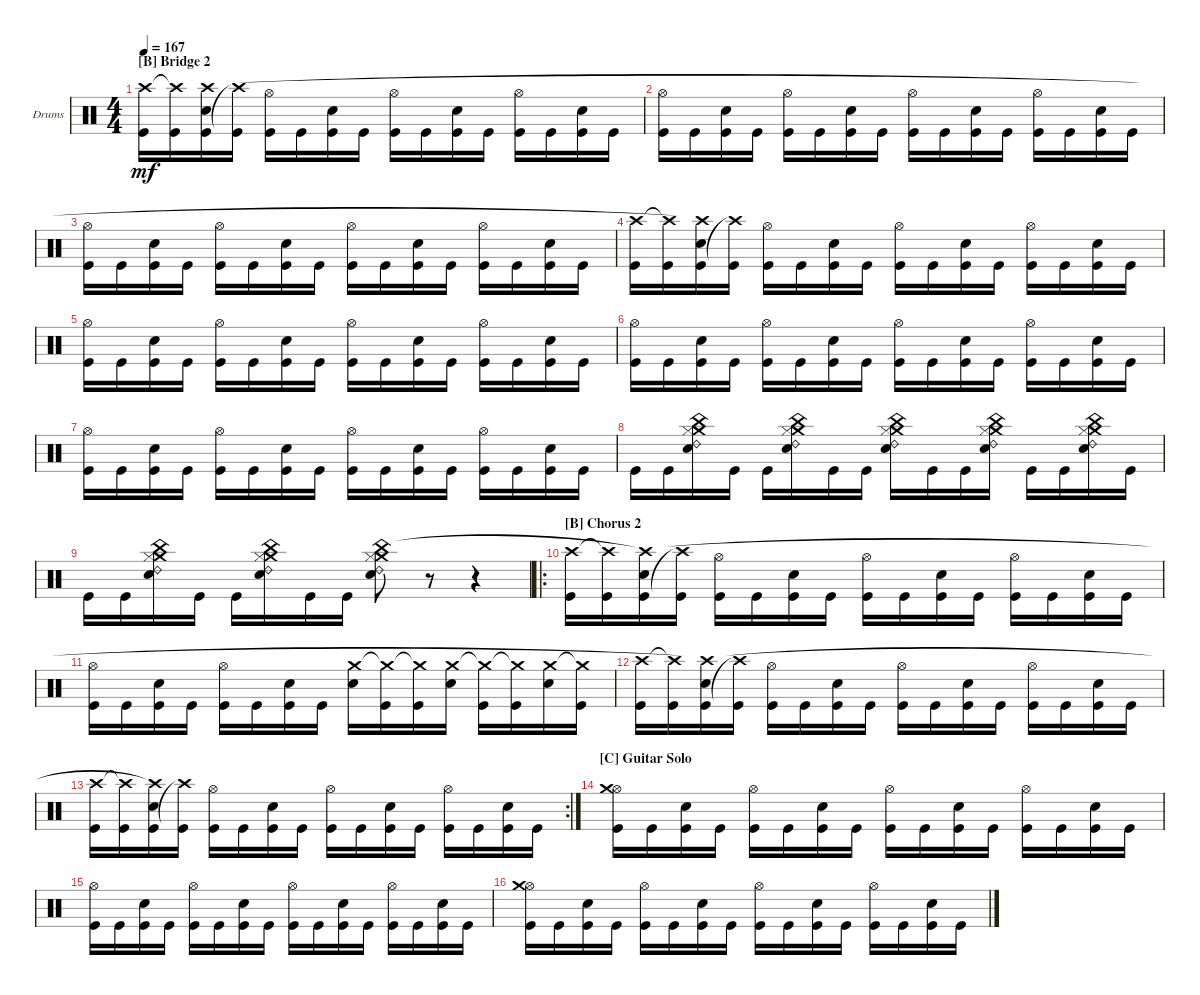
\defaultSystemsLayout 4
\bracketExtendMode groupsimilarinstruments
\firstSystemTrackNameOrientation horizontal
\otherSystemsTrackNameOrientation horizontal
\track ("Drumkit" "Drums") {instrument percussion}
\staff {score}
\articulation defaults
\ts (4 4)
\section ("B" "Bridge 2")
\tempo 167
\clef neutral
\ks c
("Kick (hit)" "Crash high (hit)").16{dy mf} ("Kick (hit)" "Crash high (hit)"{t}).16 ("Snare (hit) 2" "Kick (hit)" "Crash high (hit)"{t}).16 ("Kick (hit)" "Crash high (hit)"{t}).16 ("Hi-Hat (open)" "Kick (hit)").16 "Kick (hit)".16 ("Kick (hit)" "Snare (hit) 2").16 "Kick (hit)".16 ("Kick (hit)" "Hi-Hat (open)").16 "Kick (hit)".16 ("Kick (hit)" "Snare (hit) 2").16 "Kick (hit)".16 ("Kick (hit)" "Hi-Hat (open)").16 "Kick (hit)".16 ("Kick (hit)" "Snare (hit) 2").16 "Kick (hit)".16 |
("Kick (hit)" "Hi-Hat (open)").16 "Kick (hit)".16 ("Snare (hit) 2" "Kick (hit)").16 "Kick (hit)".16 ("Hi-Hat (open)" "Kick (hit)").16 "Kick (hit)".16 ("Kick (hit)" "Snare (hit) 2").16 "Kick (hit)".16 ("Kick (hit)" "Hi-Hat (open)").16 "Kick (hit)".16 ("Kick (hit)" "Snare (hit) 2").16 "Kick (hit)".16 ("Kick (hit)" "Hi-Hat (open)").16 "Kick (hit)".16 ("Kick (hit)" "Snare (hit) 2").16 "Kick (hit)".16 |
("Kick (hit)" "Hi-Hat (open)").16 "Kick (hit)".16 ("Snare (hit) 2" "Kick (hit)").16 "Kick (hit)".16 ("Hi-Hat (open)" "Kick (hit)").16 "Kick (hit)".16 ("Kick (hit)" "Snare (hit) 2").16 "Kick (hit)".16 ("Kick (hit)" "Hi-Hat (open)").16 "Kick (hit)".16 ("Kick (hit)" "Snare (hit) 2").16 "Kick (hit)".16 ("Kick (hit)" "Hi-Hat (open)").16 "Kick (hit)".16 ("Kick (hit)" "Snare (hit) 2").16 "Kick (hit)".16 |
("Kick (hit)" "Crash high (hit)").16 ("Kick (hit)" "Crash high (hit)"{t}).16 ("Snare (hit) 2" "Kick (hit)" "Crash high (hit)"{t}).16 ("Kick (hit)" "Crash high (hit)"{t}).16 ("Hi-Hat (open)" "Kick (hit)").16 "Kick (hit)".16 ("Kick (hit)" "Snare (hit) 2").16 "Kick (hit)".16 ("Kick (hit)" "Hi-Hat (open)").16 "Kick (hit)".16 ("Kick (hit)" "Snare (hit) 2").16 "Kick (hit)".16 ("Kick (hit)" "Hi-Hat (open)").16 "Kick (hit)".16 ("Kick (hit)" "Snare (hit) 2").16 "Kick (hit)".16 |
("Kick (hit)" "Hi-Hat (open)").16 "Kick (hit)".16 ("Snare (hit) 2" "Kick (hit)").16 "Kick (hit)".16 ("Hi-Hat (open)" "Kick (hit)").16 "Kick (hit)".16 ("Kick (hit)" "Snare (hit) 2").16 "Kick (hit)".16 ("Kick (hit)" "Hi-Hat (open)").16 "Kick (hit)".16 ("Kick (hit)" "Snare (hit) 2").16 "Kick (hit)".16 ("Kick (hit)" "Hi-Hat (open)").16 "Kick (hit)".16 ("Kick (hit)" "Snare (hit) 2").16 "Kick (hit)".16 |
("Kick (hit)" "Hi-Hat (open)").16 "Kick (hit)".16 ("Snare (hit) 2" "Kick (hit)").16 "Kick (hit)".16 ("Hi-Hat (open)" "Kick (hit)").16 "Kick (hit)".16 ("Kick (hit)" "Snare (hit) 2").16 "Kick (hit)".16 ("Kick (hit)" "Hi-Hat (open)").16 "Kick (hit)".16 ("Kick (hit)" "Snare (hit) 2").16 "Kick (hit)".16 ("Kick (hit)" "Hi-Hat (open)").16 "Kick (hit)".16 ("Kick (hit)" "Snare (hit) 2").16 "Kick (hit)".16 |
("Kick (hit)" "Hi-Hat (open)").16 "Kick (hit)".16 ("Snare (hit) 2" "Kick (hit)").16 "Kick (hit)".16 ("Hi-Hat (open)" "Kick (hit)").16 "Kick (hit)".16 ("Kick (hit)" "Snare (hit) 2").16 "Kick (hit)".16 ("Kick (hit)" "Hi-Hat (open)").16 "Kick (hit)".16 ("Kick (hit)" "Snare (hit) 2").16 "Kick (hit)".16 ("Kick (hit)" "Hi-Hat (open)").16 "Kick (hit)".16 ("Kick (hit)" "Snare (hit) 2").16 "Kick (hit)".16 |
"Kick (hit)".16 "Kick (hit)".16 ("Snare (hit) 2" "Ride (bell) 2" "China (hit)" "Crash medium (hit)" "Hi-Hat (closed)").16 "Kick (hit)".16 "Kick (hit)".16 ("Snare (hit) 2" "Ride (bell) 2" "China (hit)" "Crash medium (hit)" "Hi-Hat (closed)").16 "Kick (hit)".16 "Kick (hit)".16 ("Snare (hit) 2" "Ride (bell) 2" "China (hit)" "Crash medium (hit)" "Hi-Hat (closed)").16 "Kick (hit)".16 "Kick (hit)".16 ("Snare (hit) 2" "Ride (bell) 2" "China (hit)" "Crash medium (hit)" "Hi-Hat (closed)").16 "Kick (hit)".16 "Kick (hit)".16 ("Snare (hit) 2" "Ride (bell) 2" "China (hit)" "Crash medium (hit)" "Hi-Hat (closed)").16 "Kick (hit)".16 |
"Kick (hit)".16 "Kick (hit)".16 ("Snare (hit) 2" "Ride (bell) 2" "China (hit)" "Crash medium (hit)" "Hi-Hat (closed)").16 "Kick (hit)".16 "Kick (hit)".16 ("Snare (hit) 2" "Ride (bell) 2" "China (hit)" "Crash medium (hit)" "Hi-Hat (closed)").16 "Kick (hit)".16 "Kick (hit)".16 ("Snare (hit) 2" "Ride (bell) 2" "China (hit)" "Crash medium (hit)" "Hi-Hat (closed)").8 r.8 r.4 |
\ro
\section ("B" "Chorus 2")
("Kick (hit)" "Crash high (hit)").16 ("Kick (hit)" "Crash high (hit)"{t}).16 ("Snare (hit) 2" "Kick (hit)" "Crash high (hit)"{t}).16 ("Kick (hit)" "Crash high (hit)"{t}).16 ("Hi-Hat (open)" "Kick (hit)").16 "Kick (hit)".16 ("Kick (hit)" "Snare (hit) 2").16 "Kick (hit)".16 ("Kick (hit)" "Hi-Hat (open)").16 "Kick (hit)".16 ("Kick (hit)" "Snare (hit) 2").16 "Kick (hit)".16 ("Kick (hit)" "Hi-Hat (open)").16 "Kick (hit)".16 ("Kick (hit)" "Snare (hit) 2").16 "Kick (hit)".16 |
("Kick (hit)" "Hi-Hat (open)").16 "Kick (hit)".16 ("Snare (hit) 2" "Kick (hit)").16 "Kick (hit)".16 ("Hi-Hat (open)" "Kick (hit)").16 "Kick (hit)".16 ("Kick (hit)" "Snare (hit) 2").16 "Kick (hit)".16 ("Snare (hit) 2" "Crash medium (hit)").16 ("Kick (hit)" "Crash medium (hit)"{t}).16 ("Kick (hit)" "Crash medium (hit)"{t}).16 ("Snare (hit) 2" "Crash medium (hit)").16 ("Kick (hit)" "Crash medium (hit)"{t}).16 ("Kick (hit)" "Crash medium (hit)"{t}).16 ("Snare (hit) 2" "Crash medium (hit)").16 ("Kick (hit)" "Crash medium (hit)"{t}).16 |
("Kick (hit)" "Crash high (hit)").16 ("Kick (hit)" "Crash high (hit)"{t}).16 ("Snare (hit) 2" "Kick (hit)" "Crash high (hit)"{t}).16 ("Kick (hit)" "Crash high (hit)"{t}).16 ("Hi-Hat (open)" "Kick (hit)").16 "Kick (hit)".16 ("Kick (hit)" "Snare (hit) 2").16 "Kick (hit)".16 ("Kick (hit)" "Hi-Hat (open)").16 "Kick (hit)".16 ("Kick (hit)" "Snare (hit) 2").16 "Kick (hit)".16 ("Kick (hit)" "Hi-Hat (open)").16 "Kick (hit)".16 ("Kick (hit)" "Snare (hit) 2").16 "Kick (hit)".16 |
\rc 2
("Kick (hit)" "Crash high (hit)").16 ("Kick (hit)" "Crash high (hit)"{t}).16 ("Snare (hit) 2" "Kick (hit)" "Crash high (hit)"{t}).16 ("Kick (hit)" "Crash high (hit)"{t}).16 ("Hi-Hat (open)" "Kick (hit)").16 "Kick (hit)".16 ("Kick (hit)" "Snare (hit) 2").16 "Kick (hit)".16 ("Kick (hit)" "Hi-Hat (open)").16 "Kick (hit)".16 ("Snare (hit) 2" "Kick (hit)").16 "Kick (hit)".16 ("Kick (hit)" "Hi-Hat (open)").16 "Kick (hit)".16 ("Kick (hit)" "Snare (hit) 2").16 "Kick (hit)".16 |
\section ("C" "Guitar Solo")
\scale
0.333333 ("Kick (hit)" "Hi-Hat (open)" "Crash medium (hit)").16 "Kick (hit)".16 ("Snare (hit) 2" "Kick (hit)").16 "Kick (hit)".16 ("Hi-Hat (open)" "Kick (hit)").16 "Kick (hit)".16 ("Kick (hit)" "Snare (hit) 2").16 "Kick (hit)".16 ("Kick (hit)" "Hi-Hat (open)").16 "Kick (hit)".16 ("Kick (hit)" "Snare (hit) 2").16 "Kick (hit)".16 ("Kick (hit)" "Hi-Hat (open)").16 "Kick (hit)".16 ("Kick (hit)" "Snare (hit) 2").16 "Kick (hit)".16 |
\scale
0.333333 ("Kick (hit)" "Hi-Hat (open)").16 "Kick (hit)".16 ("Snare (hit) 2" "Kick (hit)").16 "Kick (hit)".16 ("Hi-Hat (open)" "Kick (hit)").16 "Kick (hit)".16 ("Kick (hit)" "Snare (hit) 2").16 "Kick (hit)".16 ("Kick (hit)" "Hi-Hat (open)").16 "Kick (hit)".16 ("Kick (hit)" "Snare (hit) 2").16 "Kick (hit)".16 ("Kick (hit)" "Hi-Hat (open)").16 "Kick (hit)".16 ("Kick (hit)" "Snare (hit) 2").16 "Kick (hit)".16 |
\scale
0.333333 ("Kick (hit)" "Hi-Hat (open)" "Crash medium (hit)").16 "Kick (hit)".16 ("Snare (hit) 2" "Kick (hit)").16 "Kick (hit)".16 ("Hi-Hat (open)" "Kick (hit)").16 "Kick (hit)".16 ("Kick (hit)" "Snare (hit) 2").16 "Kick (hit)".16 ("Kick (hit)" "Hi-Hat (open)").16 "Kick (hit)".16 ("Kick (hit)" "Snare (hit) 2").16 "Kick (hit)".16 ("Kick (hit)" "Hi-Hat (open)").16 "Kick (hit)".16 ("Kick (hit)" "Snare (hit) 2").16 "Kick (hit)".16
